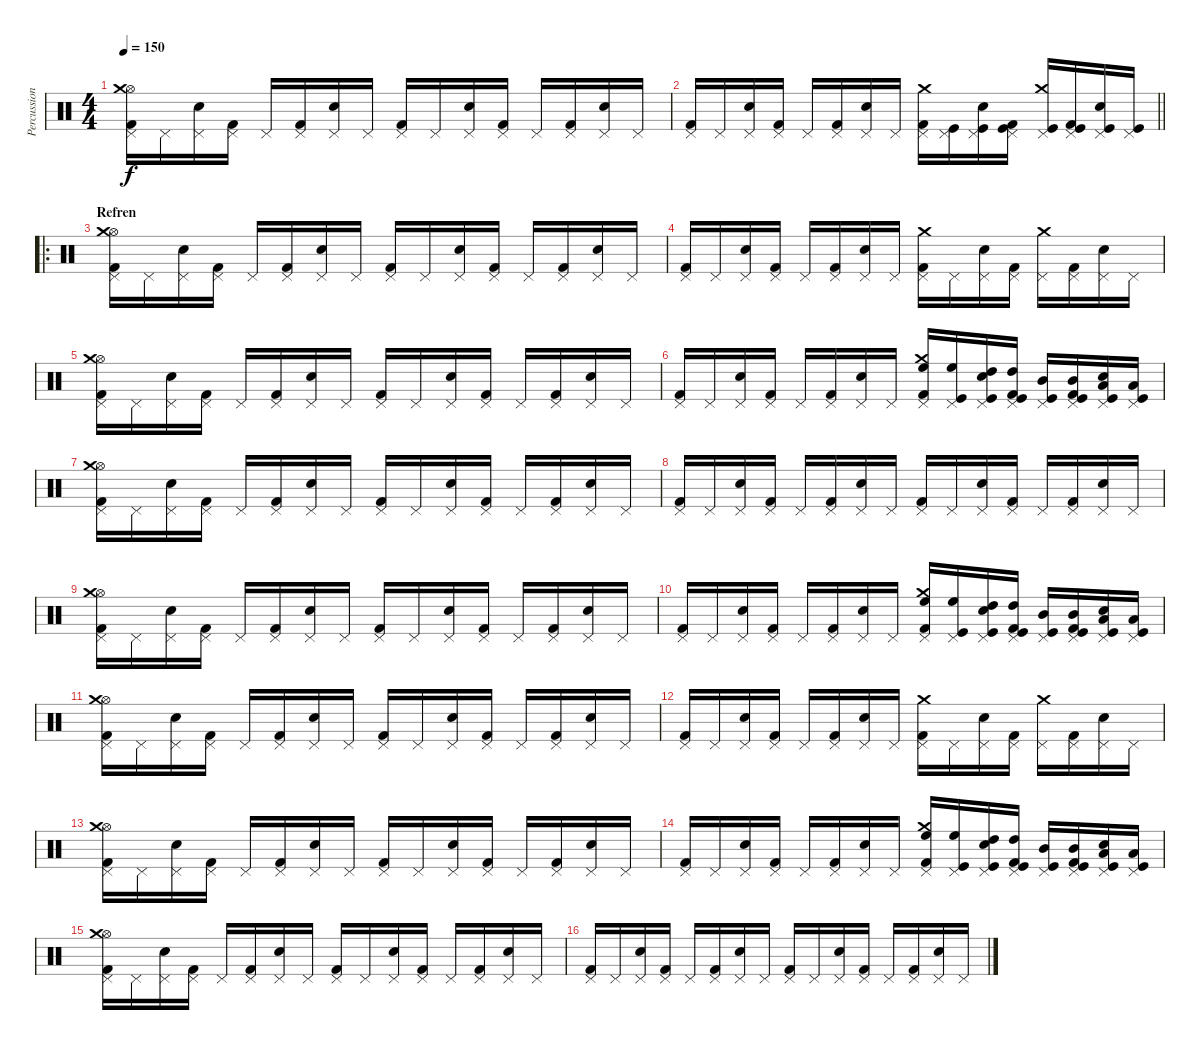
\track ("Percussion" "Percussion") {instrument percussion}
\staff {score}
\articulation defaults
\ts (4 4)
\tempo 150
\clef neutral
\ks c
("Pedal Hi-Hat (hit)" "Kick (hit) 2" "Hi-Hat (open)" "Crash medium (hit)").16{dy f} "Pedal Hi-Hat (hit)".16 ("Pedal Hi-Hat (hit)" "Snare (hit) 2").16 ("Pedal Hi-Hat (hit)" "Kick (hit) 2").16 "Pedal Hi-Hat (hit)".16 ("Pedal Hi-Hat (hit)" "Kick (hit) 2").16 ("Pedal Hi-Hat (hit)" "Snare (hit) 2").16 "Pedal Hi-Hat (hit)".16 ("Pedal Hi-Hat (hit)" "Kick (hit) 2").16 "Pedal Hi-Hat (hit)".16 ("Pedal Hi-Hat (hit)" "Snare (hit) 2").16 ("Pedal Hi-Hat (hit)" "Kick (hit) 2").16 "Pedal Hi-Hat (hit)".16 ("Pedal Hi-Hat (hit)" "Kick (hit) 2").16 ("Pedal Hi-Hat (hit)" "Snare (hit) 2").16 "Pedal Hi-Hat (hit)".16 |
\barLineRight lightlight
("Pedal Hi-Hat (hit)" "Kick (hit) 2").16 "Pedal Hi-Hat (hit)".16 ("Pedal Hi-Hat (hit)" "Snare (hit) 2").16 ("Pedal Hi-Hat (hit)" "Kick (hit) 2").16 "Pedal Hi-Hat (hit)".16 ("Pedal Hi-Hat (hit)" "Kick (hit) 2").16 ("Pedal Hi-Hat (hit)" "Snare (hit) 2").16 "Pedal Hi-Hat (hit)".16 ("Pedal Hi-Hat (hit)" "Kick (hit) 2" "Crash medium (hit)").16 ("Pedal Hi-Hat (hit)" "Kick (hit)").16 ("Pedal Hi-Hat (hit)" "Snare (hit) 2" "Kick (hit)").16 ("Pedal Hi-Hat (hit)" "Kick (hit) 2" "Kick (hit)").16 ("Pedal Hi-Hat (hit)" "Kick (hit)" "Crash medium (hit)").16 ("Pedal Hi-Hat (hit)" "Kick (hit) 2" "Kick (hit)").16 ("Pedal Hi-Hat (hit)" "Snare (hit) 2" "Kick (hit)").16 ("Pedal Hi-Hat (hit)" "Kick (hit)").16 |
\ro
\section ("" "Refren")
("Pedal Hi-Hat (hit)" "Kick (hit) 2" "Hi-Hat (open)" "Crash medium (hit)").16 "Pedal Hi-Hat (hit)".16 ("Pedal Hi-Hat (hit)" "Snare (hit) 2").16 ("Pedal Hi-Hat (hit)" "Kick (hit) 2").16 "Pedal Hi-Hat (hit)".16 ("Pedal Hi-Hat (hit)" "Kick (hit) 2").16 ("Pedal Hi-Hat (hit)" "Snare (hit) 2").16 "Pedal Hi-Hat (hit)".16 ("Pedal Hi-Hat (hit)" "Kick (hit) 2").16 "Pedal Hi-Hat (hit)".16 ("Pedal Hi-Hat (hit)" "Snare (hit) 2").16 ("Pedal Hi-Hat (hit)" "Kick (hit) 2").16 "Pedal Hi-Hat (hit)".16 ("Pedal Hi-Hat (hit)" "Kick (hit) 2").16 ("Pedal Hi-Hat (hit)" "Snare (hit) 2").16 "Pedal Hi-Hat (hit)".16 |
("Pedal Hi-Hat (hit)" "Kick (hit) 2").16 "Pedal Hi-Hat (hit)".16 ("Pedal Hi-Hat (hit)" "Snare (hit) 2").16 ("Pedal Hi-Hat (hit)" "Kick (hit) 2").16 "Pedal Hi-Hat (hit)".16 ("Pedal Hi-Hat (hit)" "Kick (hit) 2").16 ("Pedal Hi-Hat (hit)" "Snare (hit) 2").16 "Pedal Hi-Hat (hit)".16 ("Pedal Hi-Hat (hit)" "Kick (hit) 2" "Crash medium (hit)").16 "Pedal Hi-Hat (hit)".16 ("Pedal Hi-Hat (hit)" "Snare (hit) 2").16 ("Pedal Hi-Hat (hit)" "Kick (hit) 2").16 ("Pedal Hi-Hat (hit)" "Crash medium (hit)").16 ("Pedal Hi-Hat (hit)" "Kick (hit) 2").16 ("Pedal Hi-Hat (hit)" "Snare (hit) 2").16 "Pedal Hi-Hat (hit)".16 |
("Pedal Hi-Hat (hit)" "Kick (hit) 2" "Hi-Hat (open)" "Crash medium (hit)").16 "Pedal Hi-Hat (hit)".16 ("Pedal Hi-Hat (hit)" "Snare (hit) 2").16 ("Pedal Hi-Hat (hit)" "Kick (hit) 2").16 "Pedal Hi-Hat (hit)".16 ("Pedal Hi-Hat (hit)" "Kick (hit) 2").16 ("Pedal Hi-Hat (hit)" "Snare (hit) 2").16 "Pedal Hi-Hat (hit)".16 ("Pedal Hi-Hat (hit)" "Kick (hit) 2").16 "Pedal Hi-Hat (hit)".16 ("Pedal Hi-Hat (hit)" "Snare (hit) 2").16 ("Pedal Hi-Hat (hit)" "Kick (hit) 2").16 "Pedal Hi-Hat (hit)".16 ("Pedal Hi-Hat (hit)" "Kick (hit) 2").16 ("Pedal Hi-Hat (hit)" "Snare (hit) 2").16 "Pedal Hi-Hat (hit)".16 |
("Pedal Hi-Hat (hit)" "Kick (hit) 2").16 "Pedal Hi-Hat (hit)".16 ("Pedal Hi-Hat (hit)" "Snare (hit) 2").16 ("Pedal Hi-Hat (hit)" "Kick (hit) 2").16 "Pedal Hi-Hat (hit)".16 ("Pedal Hi-Hat (hit)" "Kick (hit) 2").16 ("Pedal Hi-Hat (hit)" "Snare (hit) 2").16 "Pedal Hi-Hat (hit)".16 ("Pedal Hi-Hat (hit)" "Kick (hit) 2" "High Floor Tom (hit)" "Crash medium (hit)").16 ("Pedal Hi-Hat (hit)" "Kick (hit)" "High Floor Tom (hit)").16 ("Pedal Hi-Hat (hit)" "Snare (hit) 2" "Kick (hit)" "High Tom (hit)").16 ("Pedal Hi-Hat (hit)" "Kick (hit) 2" "Kick (hit)" "High Tom (hit)").16 ("Pedal Hi-Hat (hit)" "Kick (hit)" "Mid Tom (hit)").16 ("Pedal Hi-Hat (hit)" "Kick (hit) 2" "Kick (hit)" "Mid Tom (hit)").16 ("Pedal Hi-Hat (hit)" "Snare (hit) 2" "Kick (hit)" "Low Tom (hit)").16 ("Pedal Hi-Hat (hit)" "Kick (hit)" "Low Tom (hit)").16 |
("Pedal Hi-Hat (hit)" "Kick (hit) 2" "Hi-Hat (open)" "Crash medium (hit)").16 "Pedal Hi-Hat (hit)".16 ("Pedal Hi-Hat (hit)" "Snare (hit) 2").16 ("Pedal Hi-Hat (hit)" "Kick (hit) 2").16 "Pedal Hi-Hat (hit)".16 ("Pedal Hi-Hat (hit)" "Kick (hit) 2").16 ("Pedal Hi-Hat (hit)" "Snare (hit) 2").16 "Pedal Hi-Hat (hit)".16 ("Pedal Hi-Hat (hit)" "Kick (hit) 2").16 "Pedal Hi-Hat (hit)".16 ("Pedal Hi-Hat (hit)" "Snare (hit) 2").16 ("Pedal Hi-Hat (hit)" "Kick (hit) 2").16 "Pedal Hi-Hat (hit)".16 ("Pedal Hi-Hat (hit)" "Kick (hit) 2").16 ("Pedal Hi-Hat (hit)" "Snare (hit) 2").16 "Pedal Hi-Hat (hit)".16 |
("Pedal Hi-Hat (hit)" "Kick (hit) 2").16 "Pedal Hi-Hat (hit)".16 ("Pedal Hi-Hat (hit)" "Snare (hit) 2").16 ("Pedal Hi-Hat (hit)" "Kick (hit) 2").16 "Pedal Hi-Hat (hit)".16 ("Pedal Hi-Hat (hit)" "Kick (hit) 2").16 ("Pedal Hi-Hat (hit)" "Snare (hit) 2").16 "Pedal Hi-Hat (hit)".16 ("Pedal Hi-Hat (hit)" "Kick (hit) 2").16 "Pedal Hi-Hat (hit)".16 ("Pedal Hi-Hat (hit)" "Snare (hit) 2").16 ("Pedal Hi-Hat (hit)" "Kick (hit) 2").16 "Pedal Hi-Hat (hit)".16 ("Pedal Hi-Hat (hit)" "Kick (hit) 2").16 ("Pedal Hi-Hat (hit)" "Snare (hit) 2").16 "Pedal Hi-Hat (hit)".16 |
("Pedal Hi-Hat (hit)" "Kick (hit) 2" "Hi-Hat (open)" "Crash medium (hit)").16 "Pedal Hi-Hat (hit)".16 ("Pedal Hi-Hat (hit)" "Snare (hit) 2").16 ("Pedal Hi-Hat (hit)" "Kick (hit) 2").16 "Pedal Hi-Hat (hit)".16 ("Pedal Hi-Hat (hit)" "Kick (hit) 2").16 ("Pedal Hi-Hat (hit)" "Snare (hit) 2").16 "Pedal Hi-Hat (hit)".16 ("Pedal Hi-Hat (hit)" "Kick (hit) 2").16 "Pedal Hi-Hat (hit)".16 ("Pedal Hi-Hat (hit)" "Snare (hit) 2").16 ("Pedal Hi-Hat (hit)" "Kick (hit) 2").16 "Pedal Hi-Hat (hit)".16 ("Pedal Hi-Hat (hit)" "Kick (hit) 2").16 ("Pedal Hi-Hat (hit)" "Snare (hit) 2").16 "Pedal Hi-Hat (hit)".16 |
("Pedal Hi-Hat (hit)" "Kick (hit) 2").16 "Pedal Hi-Hat (hit)".16 ("Pedal Hi-Hat (hit)" "Snare (hit) 2").16 ("Pedal Hi-Hat (hit)" "Kick (hit) 2").16 "Pedal Hi-Hat (hit)".16 ("Pedal Hi-Hat (hit)" "Kick (hit) 2").16 ("Pedal Hi-Hat (hit)" "Snare (hit) 2").16 "Pedal Hi-Hat (hit)".16 ("Pedal Hi-Hat (hit)" "Kick (hit) 2" "High Floor Tom (hit)" "Crash medium (hit)").16 ("Pedal Hi-Hat (hit)" "Kick (hit)" "High Floor Tom (hit)").16 ("Pedal Hi-Hat (hit)" "Snare (hit) 2" "Kick (hit)" "High Tom (hit)").16 ("Pedal Hi-Hat (hit)" "Kick (hit) 2" "Kick (hit)" "High Tom (hit)").16 ("Pedal Hi-Hat (hit)" "Kick (hit)" "Mid Tom (hit)").16 ("Pedal Hi-Hat (hit)" "Kick (hit) 2" "Kick (hit)" "Mid Tom (hit)").16 ("Pedal Hi-Hat (hit)" "Snare (hit) 2" "Kick (hit)" "Low Tom (hit)").16 ("Pedal Hi-Hat (hit)" "Kick (hit)" "Low Tom (hit)").16 |
("Pedal Hi-Hat (hit)" "Kick (hit) 2" "Hi-Hat (open)" "Crash medium (hit)").16 "Pedal Hi-Hat (hit)".16 ("Pedal Hi-Hat (hit)" "Snare (hit) 2").16 ("Pedal Hi-Hat (hit)" "Kick (hit) 2").16 "Pedal Hi-Hat (hit)".16 ("Pedal Hi-Hat (hit)" "Kick (hit) 2").16 ("Pedal Hi-Hat (hit)" "Snare (hit) 2").16 "Pedal Hi-Hat (hit)".16 ("Pedal Hi-Hat (hit)" "Kick (hit) 2").16 "Pedal Hi-Hat (hit)".16 ("Pedal Hi-Hat (hit)" "Snare (hit) 2").16 ("Pedal Hi-Hat (hit)" "Kick (hit) 2").16 "Pedal Hi-Hat (hit)".16 ("Pedal Hi-Hat (hit)" "Kick (hit) 2").16 ("Pedal Hi-Hat (hit)" "Snare (hit) 2").16 "Pedal Hi-Hat (hit)".16 |
("Pedal Hi-Hat (hit)" "Kick (hit) 2").16 "Pedal Hi-Hat (hit)".16 ("Pedal Hi-Hat (hit)" "Snare (hit) 2").16 ("Pedal Hi-Hat (hit)" "Kick (hit) 2").16 "Pedal Hi-Hat (hit)".16 ("Pedal Hi-Hat (hit)" "Kick (hit) 2").16 ("Pedal Hi-Hat (hit)" "Snare (hit) 2").16 "Pedal Hi-Hat (hit)".16 ("Pedal Hi-Hat (hit)" "Kick (hit) 2" "Crash medium (hit)").16 "Pedal Hi-Hat (hit)".16 ("Pedal Hi-Hat (hit)" "Snare (hit) 2").16 ("Pedal Hi-Hat (hit)" "Kick (hit) 2").16 ("Pedal Hi-Hat (hit)" "Crash medium (hit)").16 ("Pedal Hi-Hat (hit)" "Kick (hit) 2").16 ("Pedal Hi-Hat (hit)" "Snare (hit) 2").16 "Pedal Hi-Hat (hit)".16 |
("Pedal Hi-Hat (hit)" "Kick (hit) 2" "Hi-Hat (open)" "Crash medium (hit)").16 "Pedal Hi-Hat (hit)".16 ("Pedal Hi-Hat (hit)" "Snare (hit) 2").16 ("Pedal Hi-Hat (hit)" "Kick (hit) 2").16 "Pedal Hi-Hat (hit)".16 ("Pedal Hi-Hat (hit)" "Kick (hit) 2").16 ("Pedal Hi-Hat (hit)" "Snare (hit) 2").16 "Pedal Hi-Hat (hit)".16 ("Pedal Hi-Hat (hit)" "Kick (hit) 2").16 "Pedal Hi-Hat (hit)".16 ("Pedal Hi-Hat (hit)" "Snare (hit) 2").16 ("Pedal Hi-Hat (hit)" "Kick (hit) 2").16 "Pedal Hi-Hat (hit)".16 ("Pedal Hi-Hat (hit)" "Kick (hit) 2").16 ("Pedal Hi-Hat (hit)" "Snare (hit) 2").16 "Pedal Hi-Hat (hit)".16 |
("Pedal Hi-Hat (hit)" "Kick (hit) 2").16 "Pedal Hi-Hat (hit)".16 ("Pedal Hi-Hat (hit)" "Snare (hit) 2").16 ("Pedal Hi-Hat (hit)" "Kick (hit) 2").16 "Pedal Hi-Hat (hit)".16 ("Pedal Hi-Hat (hit)" "Kick (hit) 2").16 ("Pedal Hi-Hat (hit)" "Snare (hit) 2").16 "Pedal Hi-Hat (hit)".16 ("Pedal Hi-Hat (hit)" "Kick (hit) 2" "High Floor Tom (hit)" "Crash medium (hit)").16 ("Pedal Hi-Hat (hit)" "Kick (hit)" "High Floor Tom (hit)").16 ("Pedal Hi-Hat (hit)" "Snare (hit) 2" "Kick (hit)" "High Tom (hit)").16 ("Pedal Hi-Hat (hit)" "Kick (hit) 2" "Kick (hit)" "High Tom (hit)").16 ("Pedal Hi-Hat (hit)" "Kick (hit)" "Mid Tom (hit)").16 ("Pedal Hi-Hat (hit)" "Kick (hit) 2" "Kick (hit)" "Mid Tom (hit)").16 ("Pedal Hi-Hat (hit)" "Snare (hit) 2" "Kick (hit)" "Low Tom (hit)").16 ("Pedal Hi-Hat (hit)" "Kick (hit)" "Low Tom (hit)").16 |
("Pedal Hi-Hat (hit)" "Kick (hit) 2" "Hi-Hat (open)" "Crash medium (hit)").16 "Pedal Hi-Hat (hit)".16 ("Pedal Hi-Hat (hit)" "Snare (hit) 2").16 ("Pedal Hi-Hat (hit)" "Kick (hit) 2").16 "Pedal Hi-Hat (hit)".16 ("Pedal Hi-Hat (hit)" "Kick (hit) 2").16 ("Pedal Hi-Hat (hit)" "Snare (hit) 2").16 "Pedal Hi-Hat (hit)".16 ("Pedal Hi-Hat (hit)" "Kick (hit) 2").16 "Pedal Hi-Hat (hit)".16 ("Pedal Hi-Hat (hit)" "Snare (hit) 2").16 ("Pedal Hi-Hat (hit)" "Kick (hit) 2").16 "Pedal Hi-Hat (hit)".16 ("Pedal Hi-Hat (hit)" "Kick (hit) 2").16 ("Pedal Hi-Hat (hit)" "Snare (hit) 2").16 "Pedal Hi-Hat (hit)".16 |
("Pedal Hi-Hat (hit)" "Kick (hit) 2").16 "Pedal Hi-Hat (hit)".16 ("Pedal Hi-Hat (hit)" "Snare (hit) 2").16 ("Pedal Hi-Hat (hit)" "Kick (hit) 2").16 "Pedal Hi-Hat (hit)".16 ("Pedal Hi-Hat (hit)" "Kick (hit) 2").16 ("Pedal Hi-Hat (hit)" "Snare (hit) 2").16 "Pedal Hi-Hat (hit)".16 ("Pedal Hi-Hat (hit)" "Kick (hit) 2").16 "Pedal Hi-Hat (hit)".16 ("Pedal Hi-Hat (hit)" "Snare (hit) 2").16 ("Pedal Hi-Hat (hit)" "Kick (hit) 2").16 "Pedal Hi-Hat (hit)".16 ("Pedal Hi-Hat (hit)" "Kick (hit) 2").16 ("Pedal Hi-Hat (hit)" "Snare (hit) 2").16 "Pedal Hi-Hat (hit)".16
